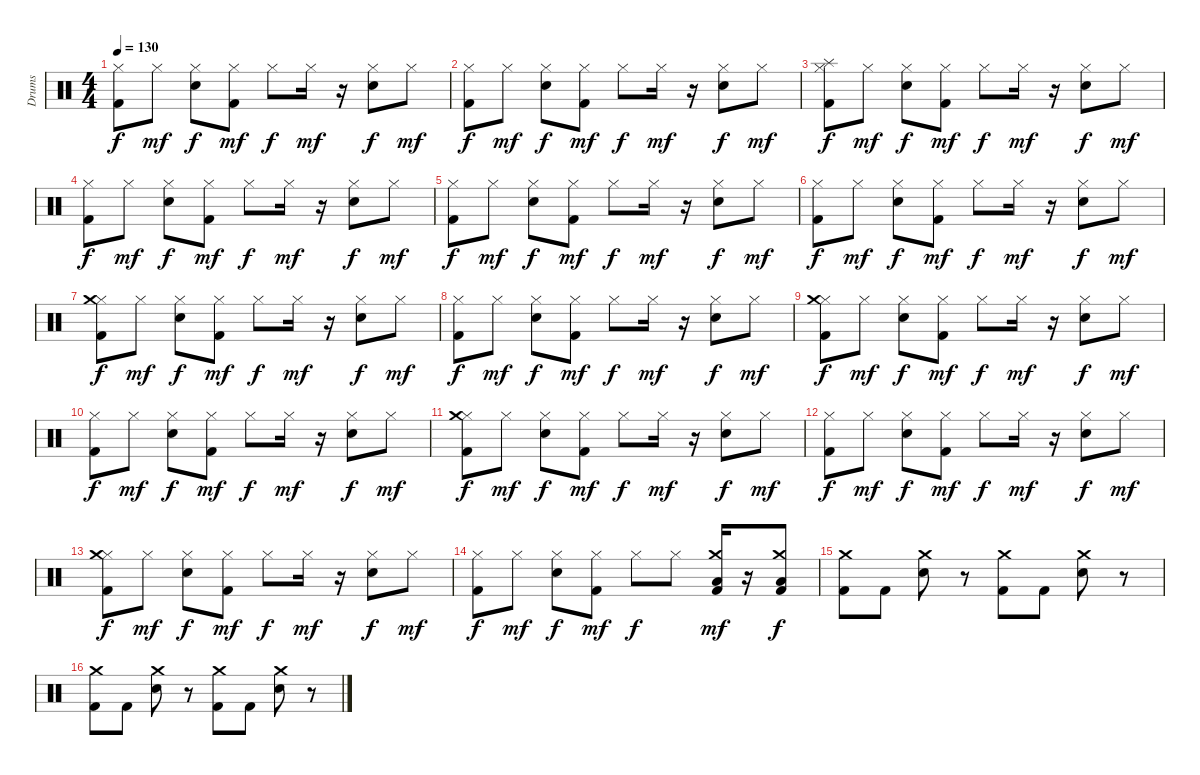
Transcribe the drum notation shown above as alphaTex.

\track ("Drums" "Drums") {instrument percussion}
\staff {score}
\articulation defaults
\ts (4 4)
\tempo 130
\clef neutral
\ks c
("Hi-Hat (closed)" "Kick (hit) 2").8{dy f} "Hi-Hat (closed)".8{dy mf} ("Hi-Hat (closed)" "Snare (hit) 2").8{dy f} ("Hi-Hat (closed)" "Kick (hit) 2").8{dy mf} "Hi-Hat (closed)".8{dy f} "Hi-Hat (closed)".16{dy mf} r.16 ("Hi-Hat (closed)" "Snare (hit) 2").8{dy f} "Hi-Hat (closed)".8{dy mf} |
("Hi-Hat (closed)" "Kick (hit) 2").8{dy f} "Hi-Hat (closed)".8{dy mf} ("Hi-Hat (closed)" "Snare (hit) 2").8{dy f} ("Hi-Hat (closed)" "Kick (hit) 2").8{dy mf} "Hi-Hat (closed)".8{dy f} "Hi-Hat (closed)".16{dy mf} r.16 ("Hi-Hat (closed)" "Snare (hit) 2").8{dy f} "Hi-Hat (closed)".8{dy mf} |
("Hi-Hat (closed)" "Splash (hit)" "Kick (hit) 2").8{dy f} "Hi-Hat (closed)".8{dy mf} ("Hi-Hat (closed)" "Snare (hit) 2").8{dy f} ("Hi-Hat (closed)" "Kick (hit) 2").8{dy mf} "Hi-Hat (closed)".8{dy f} "Hi-Hat (closed)".16{dy mf} r.16 ("Hi-Hat (closed)" "Snare (hit) 2").8{dy f} "Hi-Hat (closed)".8{dy mf} |
("Hi-Hat (closed)" "Kick (hit) 2").8{dy f} "Hi-Hat (closed)".8{dy mf} ("Hi-Hat (closed)" "Snare (hit) 2").8{dy f} ("Hi-Hat (closed)" "Kick (hit) 2").8{dy mf} "Hi-Hat (closed)".8{dy f} "Hi-Hat (closed)".16{dy mf} r.16 ("Hi-Hat (closed)" "Snare (hit) 2").8{dy f} "Hi-Hat (closed)".8{dy mf} |
("Hi-Hat (closed)" "Kick (hit) 2").8{dy f} "Hi-Hat (closed)".8{dy mf} ("Hi-Hat (closed)" "Snare (hit) 2").8{dy f} ("Hi-Hat (closed)" "Kick (hit) 2").8{dy mf} "Hi-Hat (closed)".8{dy f} "Hi-Hat (closed)".16{dy mf} r.16 ("Hi-Hat (closed)" "Snare (hit) 2").8{dy f} "Hi-Hat (closed)".8{dy mf} |
("Hi-Hat (closed)" "Kick (hit) 2").8{dy f} "Hi-Hat (closed)".8{dy mf} ("Hi-Hat (closed)" "Snare (hit) 2").8{dy f} ("Hi-Hat (closed)" "Kick (hit) 2").8{dy mf} "Hi-Hat (closed)".8{dy f} "Hi-Hat (closed)".16{dy mf} r.16 ("Hi-Hat (closed)" "Snare (hit) 2").8{dy f} "Hi-Hat (closed)".8{dy mf} |
("Hi-Hat (closed)" "Crash medium (hit)" "Kick (hit) 2").8{dy f} "Hi-Hat (closed)".8{dy mf} ("Hi-Hat (closed)" "Snare (hit) 2").8{dy f} ("Hi-Hat (closed)" "Kick (hit) 2").8{dy mf} "Hi-Hat (closed)".8{dy f} "Hi-Hat (closed)".16{dy mf} r.16 ("Hi-Hat (closed)" "Snare (hit) 2").8{dy f} "Hi-Hat (closed)".8{dy mf} |
("Hi-Hat (closed)" "Kick (hit) 2").8{dy f} "Hi-Hat (closed)".8{dy mf} ("Hi-Hat (closed)" "Snare (hit) 2").8{dy f} ("Hi-Hat (closed)" "Kick (hit) 2").8{dy mf} "Hi-Hat (closed)".8{dy f} "Hi-Hat (closed)".16{dy mf} r.16 ("Hi-Hat (closed)" "Snare (hit) 2").8{dy f} "Hi-Hat (closed)".8{dy mf} |
("Hi-Hat (closed)" "Crash medium (hit)" "Kick (hit) 2").8{dy f} "Hi-Hat (closed)".8{dy mf} ("Hi-Hat (closed)" "Snare (hit) 2").8{dy f} ("Hi-Hat (closed)" "Kick (hit) 2").8{dy mf} "Hi-Hat (closed)".8{dy f} "Hi-Hat (closed)".16{dy mf} r.16 ("Hi-Hat (closed)" "Snare (hit) 2").8{dy f} "Hi-Hat (closed)".8{dy mf} |
("Hi-Hat (closed)" "Kick (hit) 2").8{dy f} "Hi-Hat (closed)".8{dy mf} ("Hi-Hat (closed)" "Snare (hit) 2").8{dy f} ("Hi-Hat (closed)" "Kick (hit) 2").8{dy mf} "Hi-Hat (closed)".8{dy f} "Hi-Hat (closed)".16{dy mf} r.16 ("Hi-Hat (closed)" "Snare (hit) 2").8{dy f} "Hi-Hat (closed)".8{dy mf} |
("Hi-Hat (closed)" "Crash medium (hit)" "Kick (hit) 2").8{dy f} "Hi-Hat (closed)".8{dy mf} ("Hi-Hat (closed)" "Snare (hit) 2").8{dy f} ("Hi-Hat (closed)" "Kick (hit) 2").8{dy mf} "Hi-Hat (closed)".8{dy f} "Hi-Hat (closed)".16{dy mf} r.16 ("Hi-Hat (closed)" "Snare (hit) 2").8{dy f} "Hi-Hat (closed)".8{dy mf} |
("Hi-Hat (closed)" "Kick (hit) 2").8{dy f} "Hi-Hat (closed)".8{dy mf} ("Hi-Hat (closed)" "Snare (hit) 2").8{dy f} ("Hi-Hat (closed)" "Kick (hit) 2").8{dy mf} "Hi-Hat (closed)".8{dy f} "Hi-Hat (closed)".16{dy mf} r.16 ("Hi-Hat (closed)" "Snare (hit) 2").8{dy f} "Hi-Hat (closed)".8{dy mf} |
("Hi-Hat (closed)" "Crash medium (hit)" "Kick (hit) 2").8{dy f} "Hi-Hat (closed)".8{dy mf} ("Hi-Hat (closed)" "Snare (hit) 2").8{dy f} ("Hi-Hat (closed)" "Kick (hit) 2").8{dy mf} "Hi-Hat (closed)".8{dy f} "Hi-Hat (closed)".16{dy mf} r.16 ("Hi-Hat (closed)" "Snare (hit) 2").8{dy f} "Hi-Hat (closed)".8{dy mf} |
("Hi-Hat (closed)" "Kick (hit) 2").8{dy f} "Hi-Hat (closed)".8{dy mf} ("Hi-Hat (closed)" "Snare (hit) 2").8{dy f} ("Hi-Hat (closed)" "Kick (hit) 2").8{dy mf} "Hi-Hat (closed)".8{dy f} "Hi-Hat (closed)".8 ("Crash medium (hit)" "Low Tom (hit)" "Kick (hit) 2").16{dy mf volume 13} r.16 ("Crash medium (hit)" "Low Tom (hit)" "Kick (hit) 2").8{dy f} |
("Crash medium (hit)" "Kick (hit) 2").8 "Kick (hit) 2".8 ("Crash medium (hit)" "Snare (hit) 2").8 r.8 ("Crash medium (hit)" "Kick (hit) 2").8 "Kick (hit) 2".8 ("Crash medium (hit)" "Snare (hit) 2").8 r.8 |
("Crash medium (hit)" "Kick (hit) 2").8 "Kick (hit) 2".8 ("Crash medium (hit)" "Snare (hit) 2").8 r.8 ("Crash medium (hit)" "Kick (hit) 2").8 "Kick (hit) 2".8 ("Crash medium (hit)" "Snare (hit) 2").8 r.8
